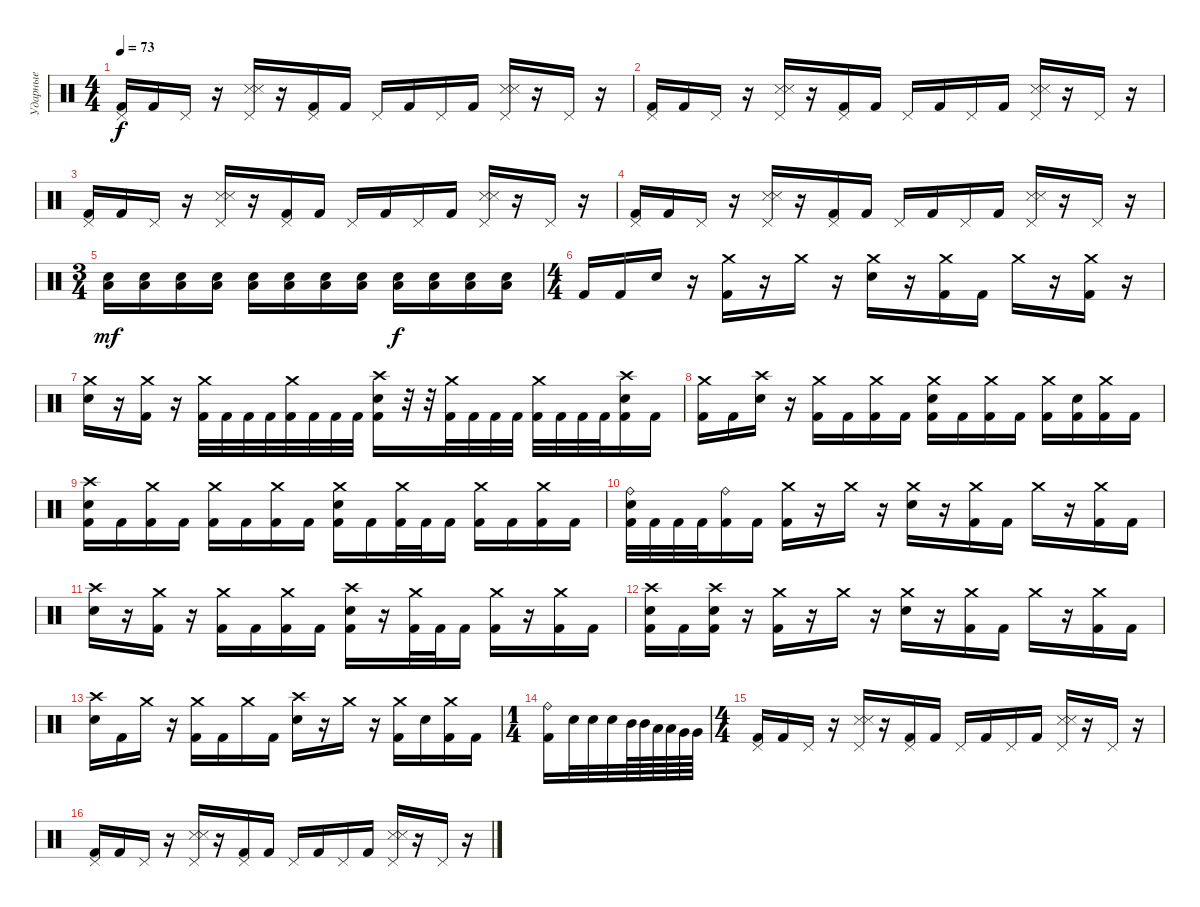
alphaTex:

\track ("Ударные" "Ударные") {instrument percussion}
\staff {score}
\articulation defaults
\ts (4 4)
\tempo 73
\clef neutral
\ks c
("Pedal Hi-Hat (hit)" "Kick (hit) 2").16{dy f} "Kick (hit) 2".16 "Pedal Hi-Hat (hit)".16 r.16 ("Pedal Hi-Hat (hit)" "Snare (side stick) 3" "Snare (side stick) 3").16 r.16 ("Pedal Hi-Hat (hit)" "Kick (hit) 2").16 "Kick (hit) 2".16 "Pedal Hi-Hat (hit)".16 "Kick (hit) 2".16 "Pedal Hi-Hat (hit)".16 "Kick (hit) 2".16 ("Pedal Hi-Hat (hit)" "Snare (side stick) 3" "Snare (side stick) 3").16 r.16 "Pedal Hi-Hat (hit)".16 r.16 |
("Pedal Hi-Hat (hit)" "Kick (hit) 2").16 "Kick (hit) 2".16 "Pedal Hi-Hat (hit)".16 r.16 ("Pedal Hi-Hat (hit)" "Snare (side stick) 3" "Snare (side stick) 3").16 r.16 ("Pedal Hi-Hat (hit)" "Kick (hit) 2").16 "Kick (hit) 2".16 "Pedal Hi-Hat (hit)".16 "Kick (hit) 2".16 "Pedal Hi-Hat (hit)".16 "Kick (hit) 2".16 ("Pedal Hi-Hat (hit)" "Snare (side stick) 3" "Snare (side stick) 3").16 r.16 "Pedal Hi-Hat (hit)".16 r.16 |
("Pedal Hi-Hat (hit)" "Kick (hit) 2").16 "Kick (hit) 2".16 "Pedal Hi-Hat (hit)".16 r.16 ("Pedal Hi-Hat (hit)" "Snare (side stick) 3" "Snare (side stick) 3").16 r.16 ("Pedal Hi-Hat (hit)" "Kick (hit) 2").16 "Kick (hit) 2".16 "Pedal Hi-Hat (hit)".16 "Kick (hit) 2".16 "Pedal Hi-Hat (hit)".16 "Kick (hit) 2".16 ("Pedal Hi-Hat (hit)" "Snare (side stick) 3" "Snare (side stick) 3").16 r.16 "Pedal Hi-Hat (hit)".16 r.16 |
("Pedal Hi-Hat (hit)" "Kick (hit) 2").16 "Kick (hit) 2".16 "Pedal Hi-Hat (hit)".16 r.16 ("Pedal Hi-Hat (hit)" "Snare (side stick) 3" "Snare (side stick) 3").16 r.16 ("Pedal Hi-Hat (hit)" "Kick (hit) 2").16 "Kick (hit) 2".16 "Pedal Hi-Hat (hit)".16 "Kick (hit) 2".16 "Pedal Hi-Hat (hit)".16 "Kick (hit) 2".16 ("Pedal Hi-Hat (hit)" "Snare (side stick) 3" "Snare (side stick) 3").16 r.16 "Pedal Hi-Hat (hit)".16 r.16 |
\ts (3 4)
("Low Floor Tom (hit)" "Electric Snare (hit)").16{dy mf} ("Low Floor Tom (hit)" "Electric Snare (hit)").16 ("Low Floor Tom (hit)" "Electric Snare (hit)").16 ("Low Floor Tom (hit)" "Electric Snare (hit)").16 ("Low Floor Tom (hit)" "Electric Snare (hit)").16 ("Low Floor Tom (hit)" "Electric Snare (hit)").16 ("Low Floor Tom (hit)" "Electric Snare (hit)").16 ("Low Floor Tom (hit)" "Electric Snare (hit)").16 ("Low Floor Tom (hit)" "Electric Snare (hit)").16{dy f} ("Low Floor Tom (hit)" "Electric Snare (hit)").16 ("Low Floor Tom (hit)" "Electric Snare (hit)").16 ("Low Floor Tom (hit)" "Electric Snare (hit)").16 |
\ts (4 4)
"Kick (hit) 2".16 "Kick (hit) 2".16 "Electric Snare (hit)".16 r.16 ("Crash medium (hit)" "Kick (hit) 2").16 r.16 "Crash medium (hit)".16 r.16 ("Crash medium (hit)" "Electric Snare (hit)").16 r.16 ("Crash medium (hit)" "Kick (hit) 2").16 "Kick (hit) 2".16 "Crash medium (hit)".16 r.16 ("Crash medium (hit)" "Kick (hit) 2").16 r.16 |
("Crash medium (hit)" "Electric Snare (hit)").16 r.16 ("Crash medium (hit)" "Kick (hit) 2").16 r.16 ("Crash medium (hit)" "Kick (hit) 2").32 "Kick (hit) 2".32 "Kick (hit) 2".32 "Kick (hit) 2".32 ("Crash medium (hit)" "Kick (hit) 2").32 "Kick (hit) 2".32 "Kick (hit) 2".32 "Kick (hit) 2".32 ("Crash high (hit)" "Electric Snare (hit)" "Kick (hit) 2").16 r.32 r.32 ("Crash medium (hit)" "Kick (hit) 2").32 "Kick (hit) 2".32 "Kick (hit) 2".32 "Kick (hit) 2".32 ("Crash medium (hit)" "Kick (hit) 2").32 "Kick (hit) 2".32 "Kick (hit) 2".32 "Kick (hit) 2".32 ("Crash high (hit)" "Electric Snare (hit)" "Kick (hit) 2").16 "Kick (hit) 2".16 |
("Crash medium (hit)" "Kick (hit) 2").16 "Kick (hit) 2".16 ("Crash high (hit)" "Electric Snare (hit)").16 r.16 ("Crash medium (hit)" "Kick (hit) 2").16 "Kick (hit) 2".16 ("Crash medium (hit)" "Kick (hit) 2").16 "Kick (hit) 2".16 ("Crash medium (hit)" "Electric Snare (hit)" "Kick (hit) 2").16 "Kick (hit) 2".16 ("Crash medium (hit)" "Kick (hit) 2").16 "Kick (hit) 2".16 ("Crash medium (hit)" "Kick (hit) 2").16 ("Electric Snare (hit)" "Kick (hit) 2").16 ("Crash medium (hit)" "Kick (hit) 2").16 "Kick (hit) 2".16 |
("Crash high (hit)" "Electric Snare (hit)" "Kick (hit) 2").16 "Kick (hit) 2".16 ("Crash medium (hit)" "Kick (hit) 2").16 "Kick (hit) 2".16 ("Crash medium (hit)" "Kick (hit) 2").16 "Kick (hit) 2".16 ("Crash medium (hit)" "Kick (hit) 2").16 "Kick (hit) 2".16 ("Crash medium (hit)" "Electric Snare (hit)" "Kick (hit) 2").16 "Kick (hit) 2".16 ("Crash medium (hit)" "Kick (hit) 2").32 "Kick (hit) 2".32 "Kick (hit) 2".16 ("Crash medium (hit)" "Kick (hit) 2").16 "Kick (hit) 2".16 ("Crash medium (hit)" "Kick (hit) 2").16 "Kick (hit) 2".16 |
("Ride (bell)" "Electric Snare (hit)" "Kick (hit) 2").32 "Kick (hit) 2".32 "Kick (hit) 2".32 "Kick (hit) 2".32 ("Ride (bell)" "Kick (hit) 2").16 "Kick (hit) 2".16 ("Crash medium (hit)" "Kick (hit) 2").16 r.16 "Crash medium (hit)".16 r.16 ("Crash medium (hit)" "Electric Snare (hit)").16 r.16 ("Crash medium (hit)" "Kick (hit) 2").16 "Kick (hit) 2".16 "Crash medium (hit)".16 r.16 ("Crash medium (hit)" "Kick (hit) 2").16 "Kick (hit) 2".16 |
("Crash high (hit)" "Electric Snare (hit)").16 r.16 ("Crash medium (hit)" "Kick (hit) 2").16 r.16 ("Crash medium (hit)" "Kick (hit) 2").16 "Kick (hit) 2".16 ("Crash medium (hit)" "Kick (hit) 2").16 "Kick (hit) 2".16 ("Crash high (hit)" "Electric Snare (hit)" "Kick (hit) 2").16 r.16 ("Crash medium (hit)" "Kick (hit) 2").32 "Kick (hit) 2".32 "Kick (hit) 2".16 ("Crash medium (hit)" "Kick (hit) 2").16 r.16 ("Crash medium (hit)" "Kick (hit) 2").16 "Kick (hit) 2".16 |
("Crash high (hit)" "Electric Snare (hit)" "Kick (hit) 2").16 "Kick (hit) 2".16 ("Crash high (hit)" "Electric Snare (hit)" "Kick (hit) 2").16 r.16 ("Crash medium (hit)" "Kick (hit) 2").16 r.16 "Crash medium (hit)".16 r.16 ("Crash medium (hit)" "Electric Snare (hit)").16 r.16 ("Crash medium (hit)" "Kick (hit) 2").16 "Kick (hit) 2".16 "Crash medium (hit)".16 r.16 ("Crash medium (hit)" "Kick (hit) 2").16 "Kick (hit) 2".16 |
("Crash high (hit)" "Electric Snare (hit)").16 "Kick (hit) 2".16 "Crash medium (hit)".16 r.16 ("Crash medium (hit)" "Kick (hit) 2").16 "Kick (hit) 2".16 "Crash medium (hit)".16 "Kick (hit) 2".16 ("Crash high (hit)" "Electric Snare (hit)").16 r.16 "Crash medium (hit)".16 r.16 ("Crash medium (hit)" "Kick (hit) 2").16 "Electric Snare (hit)".16 ("Crash medium (hit)" "Kick (hit) 2").16 "Kick (hit) 2".16 |
\ts (1 4)
("Ride (bell)" "Kick (hit) 2").16 "Electric Snare (hit)".32 "Electric Snare (hit)".32 "Electric Snare (hit)".32 "Mid Tom (hit)".64 "Mid Tom (hit)".64 "Low Tom (hit)".64 "Low Tom (hit)".64 "Very Low Tom (hit)".64 "Very Low Tom (hit)".64 |
\ts (4 4)
("Pedal Hi-Hat (hit)" "Kick (hit) 2").16 "Kick (hit) 2".16 "Pedal Hi-Hat (hit)".16 r.16 ("Pedal Hi-Hat (hit)" "Snare (side stick) 3" "Snare (side stick) 3").16 r.16 ("Pedal Hi-Hat (hit)" "Kick (hit) 2").16 "Kick (hit) 2".16 "Pedal Hi-Hat (hit)".16 "Kick (hit) 2".16 "Pedal Hi-Hat (hit)".16 "Kick (hit) 2".16 ("Pedal Hi-Hat (hit)" "Snare (side stick) 3" "Snare (side stick) 3").16 r.16 "Pedal Hi-Hat (hit)".16 r.16 |
("Pedal Hi-Hat (hit)" "Kick (hit) 2").16 "Kick (hit) 2".16 "Pedal Hi-Hat (hit)".16 r.16 ("Pedal Hi-Hat (hit)" "Snare (side stick) 3" "Snare (side stick) 3").16 r.16 ("Pedal Hi-Hat (hit)" "Kick (hit) 2").16 "Kick (hit) 2".16 "Pedal Hi-Hat (hit)".16 "Kick (hit) 2".16 "Pedal Hi-Hat (hit)".16 "Kick (hit) 2".16 ("Pedal Hi-Hat (hit)" "Snare (side stick) 3" "Snare (side stick) 3").16 r.16 "Pedal Hi-Hat (hit)".16 r.16
